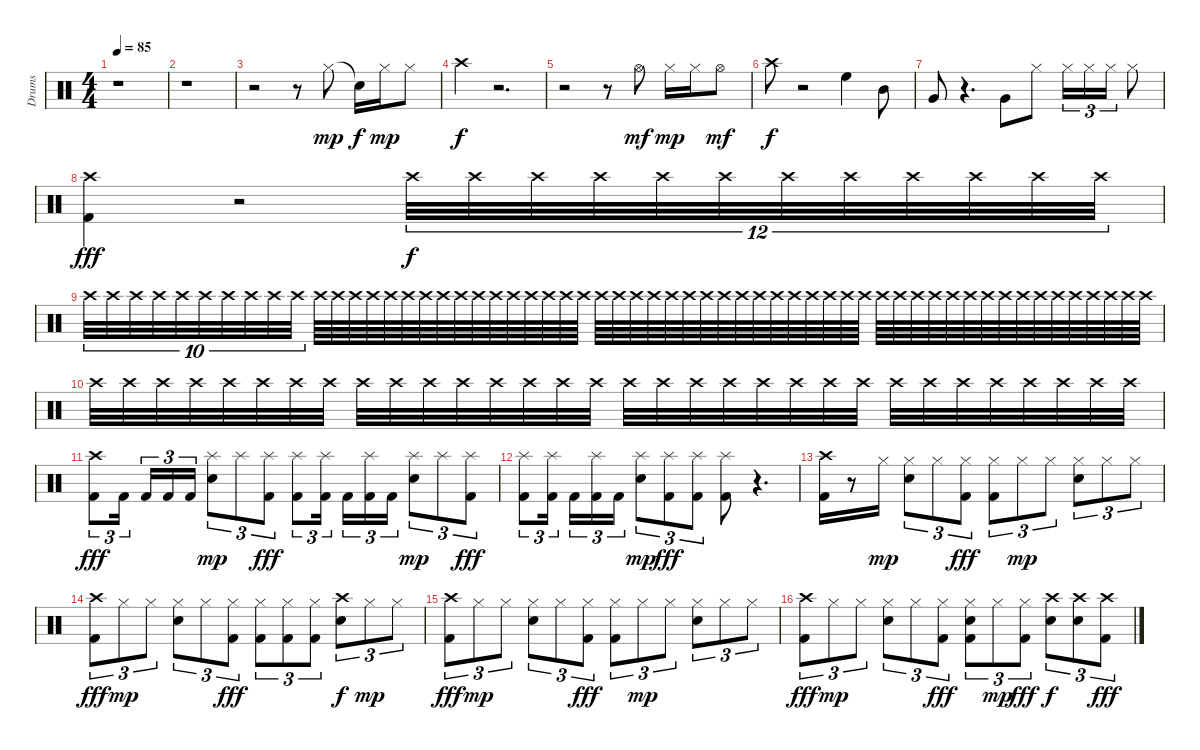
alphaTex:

\track ("Drums" "Drums") {instrument percussion}
\staff {score}
\articulation defaults
\ts (4 4)
\tempo 85
\clef neutral
\ks c
r.1{dy mp} |
r.1 |
r.2 r.8 "Hi-Hat (closed)".8 "Snare (hit)"{t}.16{dy f} "Hi-Hat (closed)".16{dy mp} "Hi-Hat (closed)".8 |
"Crash high (hit)".4{dy f} r.2{d} |
r.2 r.8 "Hi-Hat (open)".8{dy mf} "Hi-Hat (closed)".16{dy mp} "Hi-Hat (closed)".16 "Hi-Hat (open)".8{dy mf} |
"Crash high (hit)".8{dy f} r.2 "High Floor Tom (hit)".4 "Mid Tom (hit)".8 |
"Very Low Tom (hit)".8 r.4{d} "Very Low Tom (hit)".8 "Hi-Hat (closed)".8 "Hi-Hat (closed)".16{tu (3 2)} "Hi-Hat (closed)".16{tu (3 2)} "Hi-Hat (closed)".16{tu (3 2)} "Hi-Hat (closed)".8 |
("Crash high (hit)" "Kick (hit) 2").4{dy fff} r.2 "Crash high (hit)".32{tu (12 8) dy f} "Crash high (hit)".32{tu (12 8)} "Crash high (hit)".32{tu (12 8)} "Crash high (hit)".32{tu (12 8)} "Crash high (hit)".32{tu (12 8)} "Crash high (hit)".32{tu (12 8)} "Crash high (hit)".32{tu (12 8)} "Crash high (hit)".32{tu (12 8)} "Crash high (hit)".32{tu (12 8)} "Crash high (hit)".32{tu (12 8)} "Crash high (hit)".32{tu (12 8)} "Crash high (hit)".32{tu (12 8)} |
"Crash high (hit)".32{tu (10 8)} "Crash high (hit)".32{tu (10 8)} "Crash high (hit)".32{tu (10 8)} "Crash high (hit)".32{tu (10 8)} "Crash high (hit)".32{tu (10 8)} "Crash high (hit)".32{tu (10 8)} "Crash high (hit)".32{tu (10 8)} "Crash high (hit)".32{tu (10 8)} "Crash high (hit)".32{tu (10 8)} "Crash high (hit)".32{tu (10 8)} "Crash high (hit)".64 "Crash high (hit)".64 "Crash high (hit)".64 "Crash high (hit)".64 "Crash high (hit)".64 "Crash high (hit)".64 "Crash high (hit)".64 "Crash high (hit)".64 "Crash high (hit)".64 "Crash high (hit)".64 "Crash high (hit)".64 "Crash high (hit)".64 "Crash high (hit)".64 "Crash high (hit)".64 "Crash high (hit)".64 "Crash high (hit)".64 "Crash high (hit)".64 "Crash high (hit)".64 "Crash high (hit)".64 "Crash high (hit)".64 "Crash high (hit)".64 "Crash high (hit)".64 "Crash high (hit)".64 "Crash high (hit)".64 "Crash high (hit)".64 "Crash high (hit)".64 "Crash high (hit)".64 "Crash high (hit)".64 "Crash high (hit)".64 "Crash high (hit)".64 "Crash high (hit)".64 "Crash high (hit)".64 "Crash high (hit)".64 "Crash high (hit)".64 "Crash high (hit)".64 "Crash high (hit)".64 "Crash high (hit)".64 "Crash high (hit)".64 "Crash high (hit)".64 "Crash high (hit)".64 "Crash high (hit)".64 "Crash high (hit)".64 "Crash high (hit)".64 "Crash high (hit)".64 "Crash high (hit)".64 "Crash high (hit)".64 "Crash high (hit)".64 "Crash high (hit)".64 |
"Crash high (hit)".32 "Crash high (hit)".32 "Crash high (hit)".32 "Crash high (hit)".32 "Crash high (hit)".32 "Crash high (hit)".32 "Crash high (hit)".32 "Crash high (hit)".32 "Crash high (hit)".32 "Crash high (hit)".32 "Crash high (hit)".32 "Crash high (hit)".32 "Crash high (hit)".32 "Crash high (hit)".32 "Crash high (hit)".32 "Crash high (hit)".32 "Crash high (hit)".32 "Crash high (hit)".32 "Crash high (hit)".32 "Crash high (hit)".32 "Crash high (hit)".32 "Crash high (hit)".32 "Crash high (hit)".32 "Crash high (hit)".32 "Crash high (hit)".32 "Crash high (hit)".32 "Crash high (hit)".32 "Crash high (hit)".32 "Crash high (hit)".32 "Crash high (hit)".32 "Crash high (hit)".32 "Crash high (hit)".32 |
("Crash high (hit)" "Kick (hit) 2").8{tu (3 2) dy fff volume 14} "Kick (hit) 2".16{tu (3 2) volume 14} "Kick (hit) 2".16{tu (3 2)} "Kick (hit) 2".16{tu (3 2)} "Kick (hit) 2".16{tu (3 2)} ("Snare (hit) 2" "Splash (hit)").8{tu (3 2) dy mp} "Splash (hit)".8{tu (3 2)} ("Splash (hit)" "Kick (hit) 2").8{tu (3 2) dy fff} ("Splash (hit)" "Kick (hit) 2").8{tu (3 2)} ("Splash (hit)" "Kick (hit) 2").16{tu (3 2)} "Kick (hit) 2".16{tu (3 2)} ("Splash (hit)" "Kick (hit) 2").16{tu (3 2)} "Kick (hit) 2".16{tu (3 2)} ("Snare (hit) 2" "Splash (hit)").8{tu (3 2) dy mp} "Splash (hit)".8{tu (3 2)} ("Splash (hit)" "Kick (hit) 2").8{tu (3 2) dy fff} |
("Splash (hit)" "Kick (hit) 2").8{tu (3 2)} ("Splash (hit)" "Kick (hit) 2").16{tu (3 2)} "Kick (hit) 2".16{tu (3 2)} ("Splash (hit)" "Kick (hit) 2").16{tu (3 2)} "Kick (hit) 2".16{tu (3 2)} ("Snare (hit) 2" "Splash (hit)").8{tu (3 2) dy mp} ("Splash (hit)" "Kick (hit) 2").8{tu (3 2) dy fff} ("Splash (hit)" "Kick (hit) 2").8{tu (3 2)} ("Splash (hit)" "Kick (hit) 2").8 r.4{d} |
("Crash high (hit)" "Kick (hit) 2").16 r.8 "Hi-Hat (closed)".16{dy mp} ("Snare (hit) 2" "Hi-Hat (closed)").8{tu (3 2)} "Hi-Hat (closed)".8{tu (3 2)} ("Hi-Hat (closed)" "Kick (hit) 2").8{tu (3 2) dy fff} ("Hi-Hat (closed)" "Kick (hit) 2").8{tu (3 2)} "Hi-Hat (closed)".8{tu (3 2) dy mp} "Hi-Hat (closed)".8{tu (3 2)} ("Snare (hit) 2" "Hi-Hat (closed)").8{tu (3 2)} "Hi-Hat (closed)".8{tu (3 2)} "Hi-Hat (closed)".8{tu (3 2)} |
("Crash high (hit)" "Kick (hit) 2").8{tu (3 2) dy fff} "Hi-Hat (closed)".8{tu (3 2) dy mp} "Hi-Hat (closed)".8{tu (3 2)} ("Snare (hit) 2" "Hi-Hat (closed)").8{tu (3 2)} "Hi-Hat (closed)".8{tu (3 2)} ("Hi-Hat (closed)" "Kick (hit) 2").8{tu (3 2) dy fff} ("Hi-Hat (closed)" "Kick (hit) 2").8{tu (3 2)} ("Hi-Hat (closed)" "Kick (hit) 2").8{tu (3 2)} ("Hi-Hat (closed)" "Kick (hit) 2").8{tu (3 2)} ("Snare (hit) 2" "Crash high (hit)").8{tu (3 2) dy f} "Hi-Hat (closed)".8{tu (3 2) dy mp} "Hi-Hat (closed)".8{tu (3 2)} |
("Crash high (hit)" "Kick (hit) 2").8{tu (3 2) dy fff} "Hi-Hat (closed)".8{tu (3 2) dy mp} "Hi-Hat (closed)".8{tu (3 2)} ("Snare (hit) 2" "Hi-Hat (closed)").8{tu (3 2)} "Hi-Hat (closed)".8{tu (3 2)} ("Hi-Hat (closed)" "Kick (hit) 2").8{tu (3 2) dy fff} ("Hi-Hat (closed)" "Kick (hit) 2").8{tu (3 2)} "Hi-Hat (closed)".8{tu (3 2) dy mp} "Hi-Hat (closed)".8{tu (3 2)} ("Snare (hit) 2" "Hi-Hat (closed)").8{tu (3 2)} "Hi-Hat (closed)".8{tu (3 2)} "Hi-Hat (closed)".8{tu (3 2)} |
("Crash high (hit)" "Kick (hit) 2").8{tu (3 2) dy fff} "Hi-Hat (closed)".8{tu (3 2) dy mp} "Hi-Hat (closed)".8{tu (3 2)} ("Snare (hit) 2" "Hi-Hat (closed)").8{tu (3 2)} "Hi-Hat (closed)".8{tu (3 2)} ("Hi-Hat (closed)" "Kick (hit) 2").8{tu (3 2) dy fff} ("Snare (hit) 2" "Hi-Hat (closed)" "Kick (hit) 2").8{tu (3 2)} "Hi-Hat (closed)".8{tu (3 2) dy mp} ("Hi-Hat (closed)" "Kick (hit) 2").8{tu (3 2) dy fff} ("Snare (hit) 2" "Crash high (hit)").8{tu (3 2) dy f} ("Snare (hit) 2" "Crash high (hit)").8{tu (3 2)} ("Crash high (hit)" "Kick (hit) 2").8{tu (3 2) dy fff}
